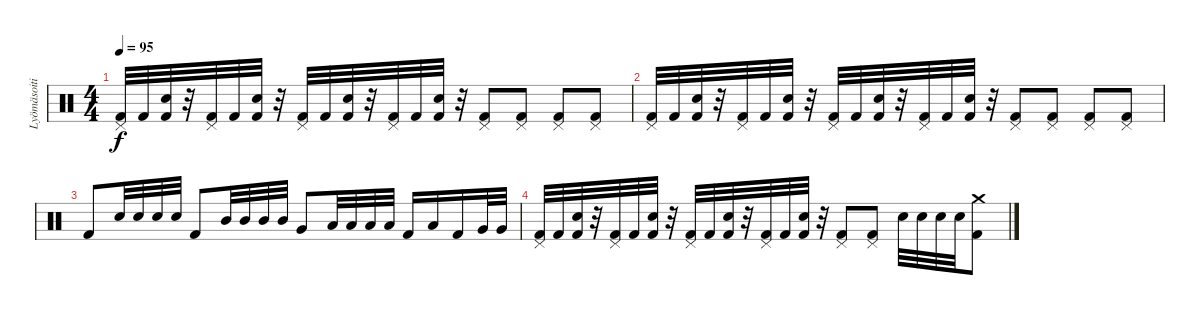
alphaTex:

\track ("Lyömäsoitin" "Lyömäsoiti") {instrument percussion}
\staff {score}
\articulation defaults
\ts (4 4)
\tempo 95
\clef neutral
\ks c
("Kick (hit) 2" "Pedal Hi-Hat (hit)").32{dy f} "Kick (hit) 2".32 ("Kick (hit) 2" "Electric Snare (hit)").32 r.32 ("Kick (hit) 2" "Pedal Hi-Hat (hit)").32 "Kick (hit) 2".32 ("Kick (hit) 2" "Electric Snare (hit)").32 r.32 ("Kick (hit) 2" "Pedal Hi-Hat (hit)").32 "Kick (hit) 2".32 ("Kick (hit) 2" "Electric Snare (hit)").32 r.32 ("Kick (hit) 2" "Pedal Hi-Hat (hit)").32 "Kick (hit) 2".32 ("Kick (hit) 2" "Electric Snare (hit)").32 r.32 ("Kick (hit) 2" "Pedal Hi-Hat (hit)").8 ("Kick (hit) 2" "Pedal Hi-Hat (hit)").8 ("Kick (hit) 2" "Pedal Hi-Hat (hit)").8 ("Kick (hit) 2" "Pedal Hi-Hat (hit)").8 |
("Kick (hit) 2" "Pedal Hi-Hat (hit)").32 "Kick (hit) 2".32 ("Kick (hit) 2" "Electric Snare (hit)").32 r.32 ("Kick (hit) 2" "Pedal Hi-Hat (hit)").32 "Kick (hit) 2".32 ("Kick (hit) 2" "Electric Snare (hit)").32 r.32 ("Kick (hit) 2" "Pedal Hi-Hat (hit)").32 "Kick (hit) 2".32 ("Kick (hit) 2" "Electric Snare (hit)").32 r.32 ("Kick (hit) 2" "Pedal Hi-Hat (hit)").32 "Kick (hit) 2".32 ("Kick (hit) 2" "Electric Snare (hit)").32 r.32 ("Kick (hit) 2" "Pedal Hi-Hat (hit)").8 ("Kick (hit) 2" "Pedal Hi-Hat (hit)").8 ("Kick (hit) 2" "Pedal Hi-Hat (hit)").8 ("Kick (hit) 2" "Pedal Hi-Hat (hit)").8 |
"Kick (hit) 2".8 "Electric Snare (hit)".32 "Electric Snare (hit)".32 "Electric Snare (hit)".32 "Electric Snare (hit)".32 "Kick (hit) 2".8 "Mid Tom (hit)".32 "Mid Tom (hit)".32 "Mid Tom (hit)".32 "Mid Tom (hit)".32 "Very Low Tom (hit)".8 "Low Tom (hit)".32 "Low Tom (hit)".32 "Low Tom (hit)".32 "Low Tom (hit)".32 "Kick (hit) 2".16 "Low Tom (hit)".16 "Kick (hit) 2".16 "Very Low Tom (hit)".32 "Very Low Tom (hit)".32 |
("Kick (hit) 2" "Pedal Hi-Hat (hit)").32 "Kick (hit) 2".32 ("Kick (hit) 2" "Electric Snare (hit)").32 r.32 ("Kick (hit) 2" "Pedal Hi-Hat (hit)").32 "Kick (hit) 2".32 ("Kick (hit) 2" "Electric Snare (hit)").32 r.32 ("Kick (hit) 2" "Pedal Hi-Hat (hit)").32 "Kick (hit) 2".32 ("Kick (hit) 2" "Electric Snare (hit)").32 r.32 ("Kick (hit) 2" "Pedal Hi-Hat (hit)").32 "Kick (hit) 2".32 ("Kick (hit) 2" "Electric Snare (hit)").32 r.32 ("Kick (hit) 2" "Pedal Hi-Hat (hit)").8 ("Kick (hit) 2" "Pedal Hi-Hat (hit)").8 "Electric Snare (hit)".32 "Electric Snare (hit)".32 "Electric Snare (hit)".32 "Electric Snare (hit)".32 ("Kick (hit) 2" "Crash medium (hit)").8
